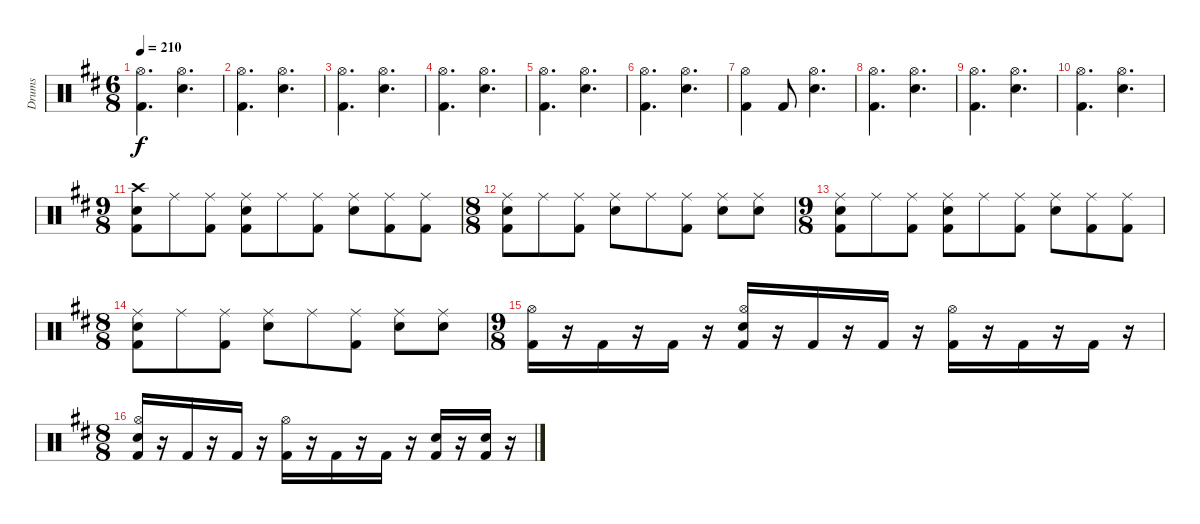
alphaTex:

\track ("Drums" "Drums") {instrument percussion}
\staff {score}
\articulation defaults
\ts (6 8)
\tempo 210
\clef neutral
\ks bminor
("Kick (hit) 2" "Hi-Hat (open)").4{d dy f} ("Electric Snare (hit)" "Hi-Hat (open)").4{d} |
("Kick (hit) 2" "Hi-Hat (open)").4{d} ("Electric Snare (hit)" "Hi-Hat (open)").4{d} |
("Kick (hit) 2" "Hi-Hat (open)").4{d} ("Electric Snare (hit)" "Hi-Hat (open)").4{d} |
("Kick (hit) 2" "Hi-Hat (open)").4{d} ("Electric Snare (hit)" "Hi-Hat (open)").4{d} |
("Kick (hit) 2" "Hi-Hat (open)").4{d} ("Electric Snare (hit)" "Hi-Hat (open)").4{d} |
("Kick (hit) 2" "Hi-Hat (open)").4{d} ("Electric Snare (hit)" "Hi-Hat (open)").4{d} |
("Kick (hit) 2" "Hi-Hat (open)").4 "Kick (hit) 2".8 ("Electric Snare (hit)" "Hi-Hat (open)").4{d} |
("Kick (hit) 2" "Hi-Hat (open)").4{d} ("Electric Snare (hit)" "Hi-Hat (open)").4{d} |
("Kick (hit) 2" "Hi-Hat (open)").4{d} ("Electric Snare (hit)" "Hi-Hat (open)").4{d} |
("Kick (hit) 2" "Hi-Hat (open)").4{d} ("Electric Snare (hit)" "Hi-Hat (open)").4{d} |
\ts (9 8)
("Kick (hit) 2" "Electric Snare (hit)" "Crash high (hit)").8 "Ride (middle)".8 ("Kick (hit) 2" "Ride (middle)").8 ("Kick (hit) 2" "Electric Snare (hit)" "Ride (middle)").8 "Ride (middle)".8 ("Kick (hit) 2" "Ride (middle)").8 ("Electric Snare (hit)" "Ride (middle)").8 ("Kick (hit) 2" "Ride (middle)").8 ("Kick (hit) 2" "Ride (middle)").8 |
\ts (8 8)
("Kick (hit) 2" "Electric Snare (hit)" "Ride (middle)").8 "Ride (middle)".8 ("Kick (hit) 2" "Ride (middle)").8 ("Electric Snare (hit)" "Ride (middle)").8 "Ride (middle)".8 ("Kick (hit) 2" "Ride (middle)").8 ("Electric Snare (hit)" "Ride (middle)").8 ("Electric Snare (hit)" "Ride (middle)").8 |
\ts (9 8)
("Kick (hit) 2" "Electric Snare (hit)" "Ride (middle)").8 "Ride (middle)".8 ("Kick (hit) 2" "Ride (middle)").8 ("Kick (hit) 2" "Electric Snare (hit)" "Ride (middle)").8 "Ride (middle)".8 ("Kick (hit) 2" "Ride (middle)").8 ("Electric Snare (hit)" "Ride (middle)").8 ("Kick (hit) 2" "Ride (middle)").8 ("Kick (hit) 2" "Ride (middle)").8 |
\ts (8 8)
("Kick (hit) 2" "Electric Snare (hit)" "Ride (middle)").8 "Ride (middle)".8 ("Kick (hit) 2" "Ride (middle)").8 ("Electric Snare (hit)" "Ride (middle)").8 "Ride (middle)".8 ("Kick (hit) 2" "Ride (middle)").8 ("Electric Snare (hit)" "Ride (middle)").8 ("Electric Snare (hit)" "Ride (middle)").8 |
\ts (9 8)
("Kick (hit) 2" "Hi-Hat (open)").16 r.16 "Kick (hit) 2".16 r.16 "Kick (hit) 2".16 r.16 ("Kick (hit) 2" "Electric Snare (hit)" "Hi-Hat (open)").16 r.16 "Kick (hit) 2".16 r.16 "Kick (hit) 2".16 r.16 ("Kick (hit) 2" "Hi-Hat (open)").16 r.16 "Kick (hit) 2".16 r.16 "Kick (hit) 2".16 r.16 |
\ts (8 8)
("Kick (hit) 2" "Electric Snare (hit)" "Hi-Hat (open)").16 r.16 "Kick (hit) 2".16 r.16 "Kick (hit) 2".16 r.16 ("Kick (hit) 2" "Hi-Hat (open)").16 r.16 "Kick (hit) 2".16 r.16 "Kick (hit) 2".16 r.16 ("Kick (hit) 2" "Electric Snare (hit)").16 r.16 ("Kick (hit) 2" "Electric Snare (hit)").16 r.16
